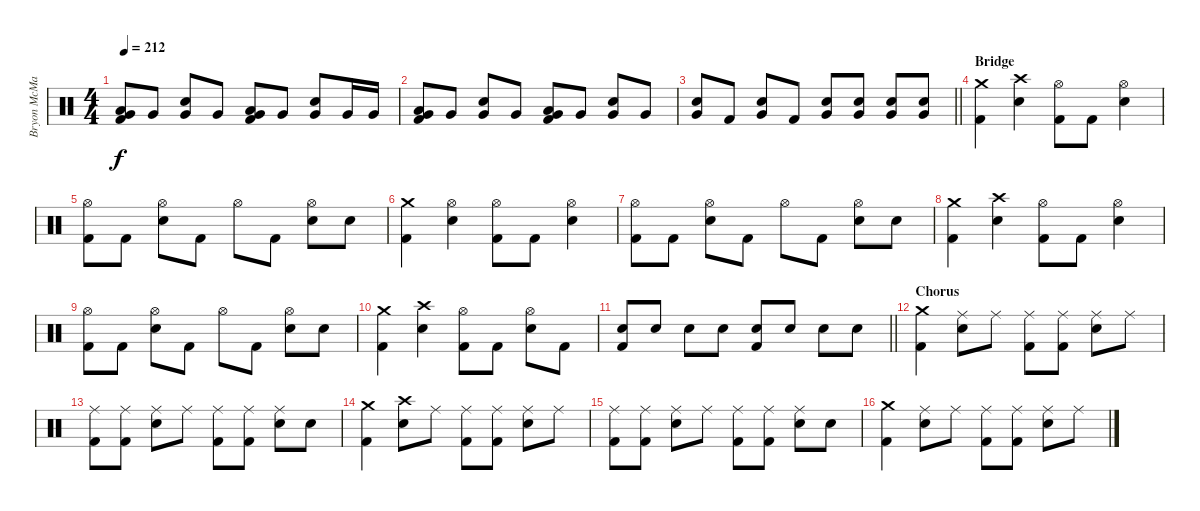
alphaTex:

\track ("Bryon McMackin - Drums" "Bryon McMa") {instrument percussion}
\staff {score}
\articulation defaults
\ts (4 4)
\tempo 212
\clef neutral
\ks c
("Low Tom (hit)" "Very Low Tom (hit)" "Kick (hit) 2").8{dy f} "Very Low Tom (hit)".8 ("Electric Snare (hit)" "Very Low Tom (hit)").8 "Very Low Tom (hit)".8 ("Low Tom (hit)" "Very Low Tom (hit)" "Kick (hit) 2").8 "Very Low Tom (hit)".8 ("Electric Snare (hit)" "Very Low Tom (hit)").8 "Very Low Tom (hit)".16 "Very Low Tom (hit)".16 |
("Low Tom (hit)" "Very Low Tom (hit)" "Kick (hit) 2").8 "Very Low Tom (hit)".8 ("Electric Snare (hit)" "Very Low Tom (hit)").8 "Very Low Tom (hit)".8 ("Low Tom (hit)" "Very Low Tom (hit)" "Kick (hit) 2").8 "Very Low Tom (hit)".8 ("Electric Snare (hit)" "Very Low Tom (hit)").8 "Very Low Tom (hit)".8 |
\barLineRight lightlight
("Electric Snare (hit)" "Very Low Tom (hit)").8 "Kick (hit) 2".8 ("Electric Snare (hit)" "Very Low Tom (hit)").8 "Kick (hit) 2".8 ("Electric Snare (hit)" "Very Low Tom (hit)").8 ("Electric Snare (hit)" "Very Low Tom (hit)").8 ("Electric Snare (hit)" "Very Low Tom (hit)").8 ("Electric Snare (hit)" "Very Low Tom (hit)").8 |
\section ("" "Bridge")
("Crash medium (hit)" "Kick (hit) 2").4 ("Crash high (hit)" "Electric Snare (hit)").4 ("Hi-Hat (open)" "Kick (hit) 2").8 "Kick (hit) 2".8 ("Hi-Hat (open)" "Electric Snare (hit)").4 |
("Hi-Hat (open)" "Kick (hit) 2").8 "Kick (hit) 2".8 ("Hi-Hat (open)" "Electric Snare (hit)").8 "Kick (hit) 2".8 "Hi-Hat (open)".8 "Kick (hit) 2".8 ("Hi-Hat (open)" "Electric Snare (hit)").8 "Electric Snare (hit)".8 |
("Crash medium (hit)" "Kick (hit) 2").4 ("Hi-Hat (open)" "Electric Snare (hit)").4 ("Hi-Hat (open)" "Kick (hit) 2").8 "Kick (hit) 2".8 ("Hi-Hat (open)" "Electric Snare (hit)").4 |
("Hi-Hat (open)" "Kick (hit) 2").8 "Kick (hit) 2".8 ("Hi-Hat (open)" "Electric Snare (hit)").8 "Kick (hit) 2".8 "Hi-Hat (open)".8 "Kick (hit) 2".8 ("Hi-Hat (open)" "Electric Snare (hit)").8 "Electric Snare (hit)".8 |
("Crash medium (hit)" "Kick (hit) 2").4 ("Crash high (hit)" "Electric Snare (hit)").4 ("Hi-Hat (open)" "Kick (hit) 2").8 "Kick (hit) 2".8 ("Hi-Hat (open)" "Electric Snare (hit)").4 |
("Hi-Hat (open)" "Kick (hit) 2").8 "Kick (hit) 2".8 ("Hi-Hat (open)" "Electric Snare (hit)").8 "Kick (hit) 2".8 "Hi-Hat (open)".8 "Kick (hit) 2".8 ("Hi-Hat (open)" "Electric Snare (hit)").8 "Electric Snare (hit)".8 |
("Crash medium (hit)" "Kick (hit) 2").4 ("Crash high (hit)" "Electric Snare (hit)").4 ("Hi-Hat (open)" "Kick (hit) 2").8 "Kick (hit) 2".8 ("Hi-Hat (open)" "Electric Snare (hit)").8 "Kick (hit) 2".8 |
\barLineRight lightlight
("Electric Snare (hit)" "Kick (hit) 2").8 "Electric Snare (hit)".8 "Electric Snare (hit)".8 "Electric Snare (hit)".8 ("Electric Snare (hit)" "Kick (hit) 2").8 "Electric Snare (hit)".8 "Electric Snare (hit)".8 "Electric Snare (hit)".8 |
\section ("" "Chorus")
("Crash medium (hit)" "Kick (hit) 2").4 ("Ride (middle)" "Electric Snare (hit)").8 "Ride (middle)".8 ("Ride (middle)" "Kick (hit) 2").8 ("Ride (middle)" "Kick (hit) 2").8 ("Ride (middle)" "Electric Snare (hit)").8 "Ride (middle)".8 |
("Ride (middle)" "Kick (hit) 2").8 ("Ride (middle)" "Kick (hit) 2").8 ("Ride (middle)" "Electric Snare (hit)").8 "Ride (middle)".8 ("Ride (middle)" "Kick (hit) 2").8 ("Ride (middle)" "Kick (hit) 2").8 ("Ride (middle)" "Electric Snare (hit)").8 "Electric Snare (hit)".8 |
("Crash medium (hit)" "Kick (hit) 2").4 ("Crash high (hit)" "Electric Snare (hit)").8 "Ride (middle)".8 ("Ride (middle)" "Kick (hit) 2").8 ("Ride (middle)" "Kick (hit) 2").8 ("Ride (middle)" "Electric Snare (hit)").8 "Ride (middle)".8 |
("Ride (middle)" "Kick (hit) 2").8 ("Ride (middle)" "Kick (hit) 2").8 ("Ride (middle)" "Electric Snare (hit)").8 "Ride (middle)".8 ("Ride (middle)" "Kick (hit) 2").8 ("Ride (middle)" "Kick (hit) 2").8 ("Ride (middle)" "Electric Snare (hit)").8 "Electric Snare (hit)".8 |
("Crash medium (hit)" "Kick (hit) 2").4 ("Ride (middle)" "Electric Snare (hit)").8 "Ride (middle)".8 ("Ride (middle)" "Kick (hit) 2").8 ("Ride (middle)" "Kick (hit) 2").8 ("Ride (middle)" "Electric Snare (hit)").8 "Ride (middle)".8
